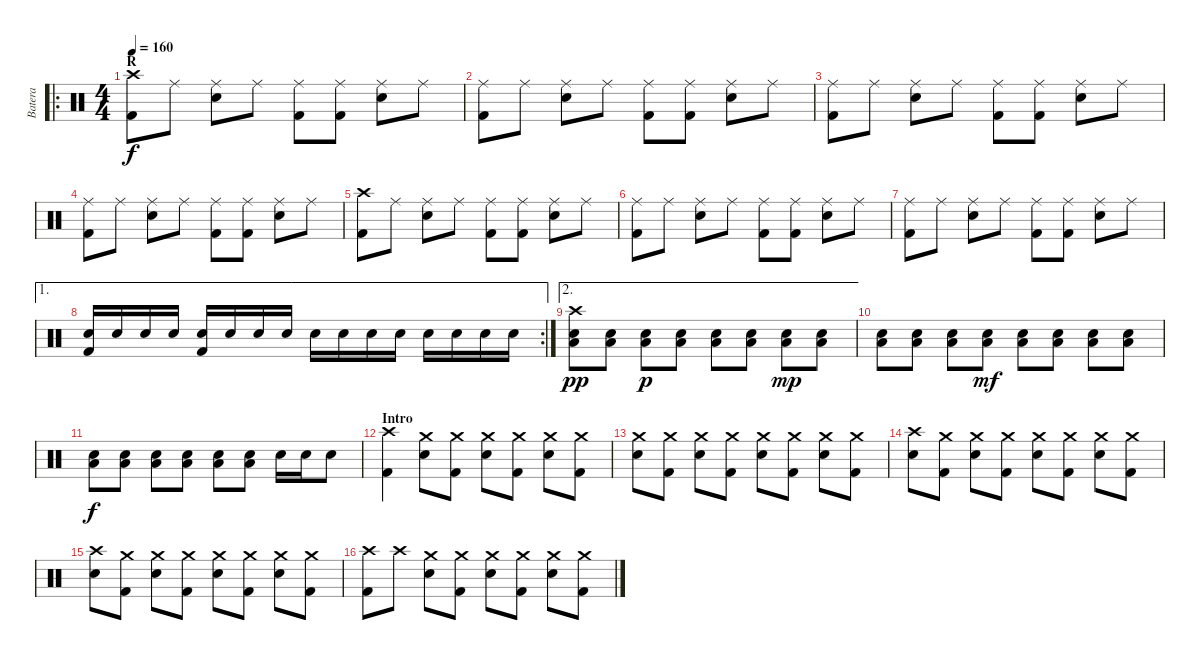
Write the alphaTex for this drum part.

\track ("Batera" "Batera") {instrument percussion}
\staff {score}
\articulation defaults
\ro
\ts (4 4)
\section ("" "R")
\tempo 160
\clef neutral
\ks c
("Crash high (hit)" "Kick (hit) 2").8{dy f} "Ride (middle)".8 ("Ride (middle)" "Electric Snare (hit)").8 "Ride (middle)".8 ("Ride (middle)" "Kick (hit) 2").8 ("Ride (middle)" "Kick (hit) 2").8 ("Ride (middle)" "Electric Snare (hit)").8 "Ride (middle)".8 |
("Ride (middle)" "Kick (hit) 2").8 "Ride (middle)".8 ("Ride (middle)" "Electric Snare (hit)").8 "Ride (middle)".8 ("Ride (middle)" "Kick (hit) 2").8 ("Ride (middle)" "Kick (hit) 2").8 ("Ride (middle)" "Electric Snare (hit)").8 "Ride (middle)".8 |
("Ride (middle)" "Kick (hit) 2").8 "Ride (middle)".8 ("Ride (middle)" "Electric Snare (hit)").8 "Ride (middle)".8 ("Ride (middle)" "Kick (hit) 2").8 ("Ride (middle)" "Kick (hit) 2").8 ("Ride (middle)" "Electric Snare (hit)").8 "Ride (middle)".8 |
("Ride (middle)" "Kick (hit) 2").8 "Ride (middle)".8 ("Ride (middle)" "Electric Snare (hit)").8 "Ride (middle)".8 ("Ride (middle)" "Kick (hit) 2").8 ("Ride (middle)" "Kick (hit) 2").8 ("Ride (middle)" "Electric Snare (hit)").8 "Ride (middle)".8 |
("Crash high (hit)" "Kick (hit) 2").8 "Ride (middle)".8 ("Ride (middle)" "Electric Snare (hit)").8 "Ride (middle)".8 ("Ride (middle)" "Kick (hit) 2").8 ("Ride (middle)" "Kick (hit) 2").8 ("Ride (middle)" "Electric Snare (hit)").8 "Ride (middle)".8 |
("Ride (middle)" "Kick (hit) 2").8 "Ride (middle)".8 ("Ride (middle)" "Electric Snare (hit)").8 "Ride (middle)".8 ("Ride (middle)" "Kick (hit) 2").8 ("Ride (middle)" "Kick (hit) 2").8 ("Ride (middle)" "Electric Snare (hit)").8 "Ride (middle)".8 |
("Ride (middle)" "Kick (hit) 2").8 "Ride (middle)".8 ("Ride (middle)" "Electric Snare (hit)").8 "Ride (middle)".8 ("Ride (middle)" "Kick (hit) 2").8 ("Ride (middle)" "Kick (hit) 2").8 ("Ride (middle)" "Electric Snare (hit)").8 "Ride (middle)".8 |
\ae 1
\rc 2
("Electric Snare (hit)" "Kick (hit) 2").16 "Electric Snare (hit)".16 "Electric Snare (hit)".16 "Electric Snare (hit)".16 ("Electric Snare (hit)" "Kick (hit) 2").16 "Electric Snare (hit)".16 "Electric Snare (hit)".16 "Electric Snare (hit)".16 "Electric Snare (hit)".16 "Electric Snare (hit)".16 "Electric Snare (hit)".16 "Electric Snare (hit)".16 "Electric Snare (hit)".16 "Electric Snare (hit)".16 "Electric Snare (hit)".16 "Electric Snare (hit)".16 |
\ae 2
("Crash high (hit)" "Electric Snare (hit)" "Low Tom (hit)").8{dy pp} ("Electric Snare (hit)" "Low Tom (hit)").8 ("Electric Snare (hit)" "Low Tom (hit)").8{dy p} ("Electric Snare (hit)" "Low Tom (hit)").8 ("Electric Snare (hit)" "Low Tom (hit)").8 ("Electric Snare (hit)" "Low Tom (hit)").8 ("Electric Snare (hit)" "Low Tom (hit)").8{dy mp} ("Electric Snare (hit)" "Low Tom (hit)").8 |
("Electric Snare (hit)" "Low Tom (hit)").8 ("Electric Snare (hit)" "Low Tom (hit)").8 ("Electric Snare (hit)" "Low Tom (hit)").8 ("Electric Snare (hit)" "Low Tom (hit)").8{dy mf} ("Electric Snare (hit)" "Low Tom (hit)").8 ("Electric Snare (hit)" "Low Tom (hit)").8 ("Electric Snare (hit)" "Low Tom (hit)").8 ("Electric Snare (hit)" "Low Tom (hit)").8 |
("Electric Snare (hit)" "Low Tom (hit)").8{dy f} ("Electric Snare (hit)" "Low Tom (hit)").8 ("Electric Snare (hit)" "Low Tom (hit)").8 ("Electric Snare (hit)" "Low Tom (hit)").8 ("Electric Snare (hit)" "Low Tom (hit)").8 ("Electric Snare (hit)" "Low Tom (hit)").8 "Electric Snare (hit)".16 "Electric Snare (hit)".16 "Electric Snare (hit)".8 |
\section ("" "Intro")
("Crash high (hit)" "Kick (hit) 2").4 ("Crash medium (hit)" "Electric Snare (hit)").8 ("Crash medium (hit)" "Kick (hit) 2").8 ("Crash medium (hit)" "Electric Snare (hit)").8 ("Crash medium (hit)" "Kick (hit) 2").8 ("Crash medium (hit)" "Electric Snare (hit)").8 ("Crash medium (hit)" "Kick (hit) 2").8 |
("Crash medium (hit)" "Electric Snare (hit)").8 ("Crash medium (hit)" "Kick (hit) 2").8 ("Crash medium (hit)" "Electric Snare (hit)").8 ("Crash medium (hit)" "Kick (hit) 2").8 ("Crash medium (hit)" "Electric Snare (hit)").8 ("Crash medium (hit)" "Kick (hit) 2").8 ("Crash medium (hit)" "Electric Snare (hit)").8 ("Crash medium (hit)" "Kick (hit) 2").8 |
("Crash high (hit)" "Electric Snare (hit)").8 ("Crash medium (hit)" "Kick (hit) 2").8 ("Crash medium (hit)" "Electric Snare (hit)").8 ("Crash medium (hit)" "Kick (hit) 2").8 ("Crash medium (hit)" "Electric Snare (hit)").8 ("Crash medium (hit)" "Kick (hit) 2").8 ("Crash medium (hit)" "Electric Snare (hit)").8 ("Crash medium (hit)" "Kick (hit) 2").8 |
("Crash high (hit)" "Electric Snare (hit)").8 ("Crash medium (hit)" "Kick (hit) 2").8 ("Crash medium (hit)" "Electric Snare (hit)").8 ("Crash medium (hit)" "Kick (hit) 2").8 ("Crash medium (hit)" "Electric Snare (hit)").8 ("Crash medium (hit)" "Kick (hit) 2").8 ("Crash medium (hit)" "Electric Snare (hit)").8 ("Crash medium (hit)" "Kick (hit) 2").8 |
("Crash high (hit)" "Kick (hit) 2").8 "Crash high (hit)".8 ("Crash medium (hit)" "Electric Snare (hit)").8 ("Crash medium (hit)" "Kick (hit) 2").8 ("Crash medium (hit)" "Electric Snare (hit)").8 ("Crash medium (hit)" "Kick (hit) 2").8 ("Crash medium (hit)" "Electric Snare (hit)").8 ("Crash medium (hit)" "Kick (hit) 2").8
